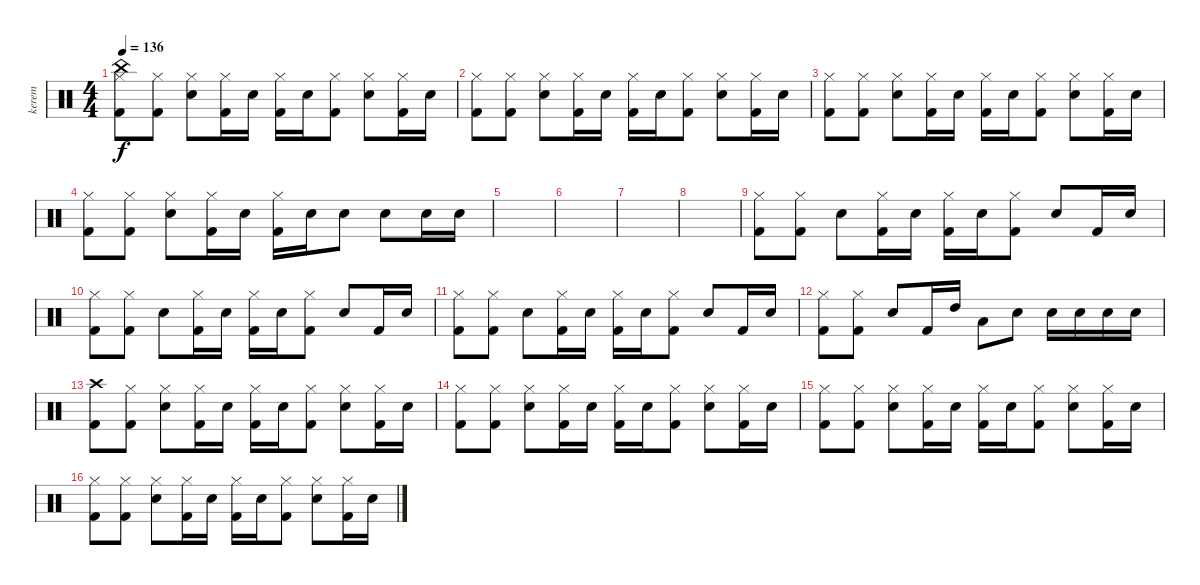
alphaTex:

\track ("kerem" "kerem") {instrument percussion}
\staff {score}
\articulation defaults
\ts (4 4)
\tempo 136
\clef neutral
\ks c
("China (hit)" "Kick (hit) 2" "Hi-Hat (closed)").8{dy f} ("Kick (hit) 2" "Hi-Hat (closed)").8 ("Electric Snare (hit)" "Hi-Hat (closed)").8 ("Kick (hit) 2" "Hi-Hat (closed)").16 "Electric Snare (hit)".16 ("Kick (hit) 2" "Hi-Hat (closed)").16 "Electric Snare (hit)".16 ("Kick (hit) 2" "Hi-Hat (closed)").8 ("Electric Snare (hit)" "Hi-Hat (closed)").8 ("Kick (hit) 2" "Hi-Hat (closed)").16 "Electric Snare (hit)".16 |
("Kick (hit) 2" "Hi-Hat (closed)").8 ("Kick (hit) 2" "Hi-Hat (closed)").8 ("Electric Snare (hit)" "Hi-Hat (closed)").8 ("Kick (hit) 2" "Hi-Hat (closed)").16 "Electric Snare (hit)".16 ("Kick (hit) 2" "Hi-Hat (closed)").16 "Electric Snare (hit)".16 ("Kick (hit) 2" "Hi-Hat (closed)").8 ("Electric Snare (hit)" "Hi-Hat (closed)").8 ("Kick (hit) 2" "Hi-Hat (closed)").16 "Electric Snare (hit)".16 |
("Kick (hit) 2" "Hi-Hat (closed)").8 ("Kick (hit) 2" "Hi-Hat (closed)").8 ("Electric Snare (hit)" "Hi-Hat (closed)").8 ("Kick (hit) 2" "Hi-Hat (closed)").16 "Electric Snare (hit)".16 ("Kick (hit) 2" "Hi-Hat (closed)").16 "Electric Snare (hit)".16 ("Kick (hit) 2" "Hi-Hat (closed)").8 ("Electric Snare (hit)" "Hi-Hat (closed)").8 ("Kick (hit) 2" "Hi-Hat (closed)").16 "Electric Snare (hit)".16 |
("Kick (hit) 2" "Hi-Hat (closed)").8 ("Kick (hit) 2" "Hi-Hat (closed)").8 ("Electric Snare (hit)" "Hi-Hat (closed)").8 ("Kick (hit) 2" "Hi-Hat (closed)").16 "Electric Snare (hit)".16 ("Kick (hit) 2" "Hi-Hat (closed)").16 "Electric Snare (hit)".16 "Electric Snare (hit)".8 "Electric Snare (hit)".8 "Electric Snare (hit)".16 "Electric Snare (hit)".16 |
|
|
|
|
("Hi-Hat (closed)" "Kick (hit) 2").8 ("Hi-Hat (closed)" "Kick (hit) 2").8 "Electric Snare (hit)".8 ("Kick (hit) 2" "Hi-Hat (closed)").16 "Electric Snare (hit)".16 ("Kick (hit) 2" "Hi-Hat (closed)").16 "Electric Snare (hit)".16 ("Kick (hit) 2" "Hi-Hat (closed)").8 "Electric Snare (hit)".8 "Kick (hit) 2".16 "Electric Snare (hit)".16 |
("Hi-Hat (closed)" "Kick (hit) 2").8 ("Hi-Hat (closed)" "Kick (hit) 2").8 "Electric Snare (hit)".8 ("Kick (hit) 2" "Hi-Hat (closed)").16 "Electric Snare (hit)".16 ("Kick (hit) 2" "Hi-Hat (closed)").16 "Electric Snare (hit)".16 ("Kick (hit) 2" "Hi-Hat (closed)").8 "Electric Snare (hit)".8 "Kick (hit) 2".16 "Electric Snare (hit)".16 |
("Hi-Hat (closed)" "Kick (hit) 2").8 ("Hi-Hat (closed)" "Kick (hit) 2").8 "Electric Snare (hit)".8 ("Kick (hit) 2" "Hi-Hat (closed)").16 "Electric Snare (hit)".16 ("Kick (hit) 2" "Hi-Hat (closed)").16 "Electric Snare (hit)".16 ("Kick (hit) 2" "Hi-Hat (closed)").8 "Electric Snare (hit)".8 "Kick (hit) 2".16 "Electric Snare (hit)".16 |
("Hi-Hat (closed)" "Kick (hit) 2").8 ("Hi-Hat (closed)" "Kick (hit) 2").8 "Electric Snare (hit)".8 "Kick (hit) 2".16 "High Tom (hit)".16 "Low Tom (hit)".8 "Electric Snare (hit)".8 "Electric Snare (hit)".16 "Electric Snare (hit)".16 "Electric Snare (hit)".16 "Electric Snare (hit)".16 |
("Kick (hit) 2" "Crash high (hit)").8 ("Kick (hit) 2" "Hi-Hat (closed)").8 ("Electric Snare (hit)" "Hi-Hat (closed)").8 ("Kick (hit) 2" "Hi-Hat (closed)").16 "Electric Snare (hit)".16 ("Kick (hit) 2" "Hi-Hat (closed)").16 "Electric Snare (hit)".16 ("Kick (hit) 2" "Hi-Hat (closed)").8 ("Electric Snare (hit)" "Hi-Hat (closed)").8 ("Kick (hit) 2" "Hi-Hat (closed)").16 "Electric Snare (hit)".16 |
("Kick (hit) 2" "Hi-Hat (closed)").8 ("Kick (hit) 2" "Hi-Hat (closed)").8 ("Electric Snare (hit)" "Hi-Hat (closed)").8 ("Kick (hit) 2" "Hi-Hat (closed)").16 "Electric Snare (hit)".16 ("Kick (hit) 2" "Hi-Hat (closed)").16 "Electric Snare (hit)".16 ("Kick (hit) 2" "Hi-Hat (closed)").8 ("Electric Snare (hit)" "Hi-Hat (closed)").8 ("Kick (hit) 2" "Hi-Hat (closed)").16 "Electric Snare (hit)".16 |
("Kick (hit) 2" "Hi-Hat (closed)").8 ("Kick (hit) 2" "Hi-Hat (closed)").8 ("Electric Snare (hit)" "Hi-Hat (closed)").8 ("Kick (hit) 2" "Hi-Hat (closed)").16 "Electric Snare (hit)".16 ("Kick (hit) 2" "Hi-Hat (closed)").16 "Electric Snare (hit)".16 ("Kick (hit) 2" "Hi-Hat (closed)").8 ("Electric Snare (hit)" "Hi-Hat (closed)").8 ("Kick (hit) 2" "Hi-Hat (closed)").16 "Electric Snare (hit)".16 |
("Kick (hit) 2" "Hi-Hat (closed)").8 ("Kick (hit) 2" "Hi-Hat (closed)").8 ("Electric Snare (hit)" "Hi-Hat (closed)").8 ("Kick (hit) 2" "Hi-Hat (closed)").16 "Electric Snare (hit)".16 ("Kick (hit) 2" "Hi-Hat (closed)").16 "Electric Snare (hit)".16 ("Kick (hit) 2" "Hi-Hat (closed)").8 ("Electric Snare (hit)" "Hi-Hat (closed)").8 ("Kick (hit) 2" "Hi-Hat (closed)").16 "Electric Snare (hit)".16
